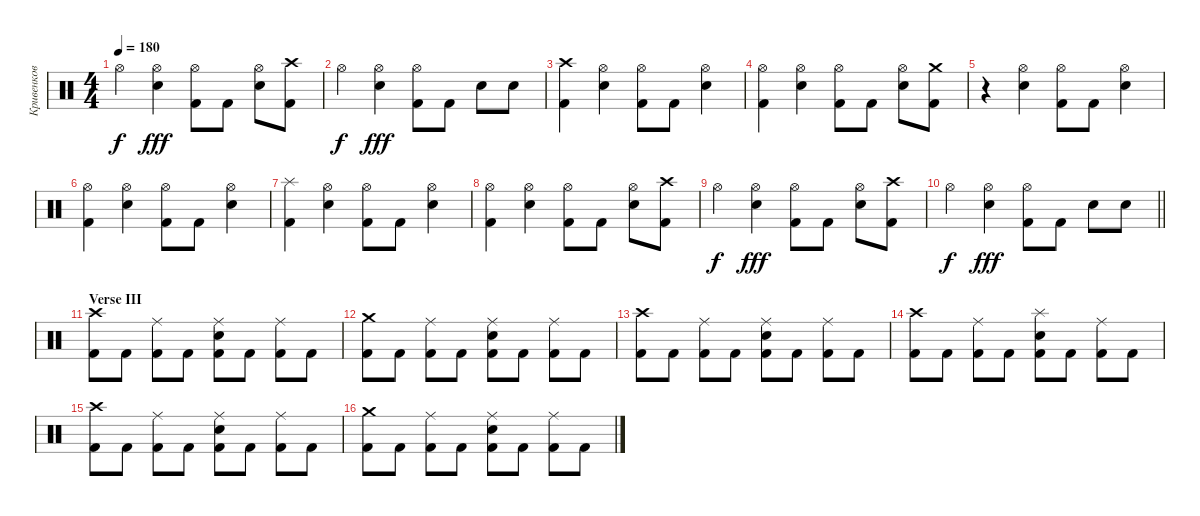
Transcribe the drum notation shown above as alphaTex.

\track ("Кривенков" "Кривенков") {instrument percussion}
\staff {score}
\articulation defaults
\ts (4 4)
\tempo 180
\clef neutral
\ks c "Hi-Hat (open)".4{dy f}
("Hi-Hat (open)" "Snare (hit) 2").4{dy fff} ("Kick (hit) 2" "Hi-Hat (open)").8 "Kick (hit) 2".8 ("Hi-Hat (open)" "Snare (hit) 2").8 ("Kick (hit) 2" "Crash high (hit)").8 |
"Hi-Hat (open)".4{dy f} ("Hi-Hat (open)" "Snare (hit) 2").4{dy fff} ("Hi-Hat (open)" "Kick (hit) 2").8 "Kick (hit) 2".8 "Snare (hit) 2".8 "Snare (hit) 2".8 |
("Kick (hit) 2" "Crash high (hit)").4 ("Hi-Hat (open)" "Snare (hit) 2").4 ("Kick (hit) 2" "Hi-Hat (open)").8 "Kick (hit) 2".8 ("Snare (hit) 2" "Hi-Hat (open)").4 |
("Hi-Hat (open)" "Kick (hit) 2").4 ("Snare (hit) 2" "Hi-Hat (open)").4 ("Kick (hit) 2" "Hi-Hat (open)").8 "Kick (hit) 2".8 ("Hi-Hat (open)" "Snare (hit) 2").8 ("Kick (hit) 2" "Crash medium (hit)").8 |
r.4 ("Snare (hit) 2" "Hi-Hat (open)").4 ("Kick (hit) 2" "Hi-Hat (open)").8 "Kick (hit) 2".8 ("Hi-Hat (open)" "Snare (hit) 2").4 |
("Kick (hit) 2" "Hi-Hat (open)").4 ("Hi-Hat (open)" "Snare (hit) 2").4 ("Kick (hit) 2" "Hi-Hat (open)").8 "Kick (hit) 2".8 ("Hi-Hat (open)" "Snare (hit) 2").4 |
("Kick (hit) 2" "Splash (hit)").4 ("Hi-Hat (open)" "Snare (hit) 2").4 ("Hi-Hat (open)" "Kick (hit) 2").8 "Kick (hit) 2".8 ("Snare (hit) 2" "Hi-Hat (open)").4 |
("Kick (hit) 2" "Hi-Hat (open)").4 ("Snare (hit) 2" "Hi-Hat (open)").4 ("Kick (hit) 2" "Hi-Hat (open)").8 "Kick (hit) 2".8 ("Hi-Hat (open)" "Snare (hit) 2").8 ("Crash high (hit)" "Kick (hit) 2").8 |
"Hi-Hat (open)".4{dy f} ("Snare (hit) 2" "Hi-Hat (open)").4{dy fff} ("Hi-Hat (open)" "Kick (hit) 2").8 "Kick (hit) 2".8 ("Snare (hit) 2" "Hi-Hat (open)").8 ("Crash high (hit)" "Kick (hit) 2").8 |
\barLineRight lightlight "Hi-Hat (open)".4{dy f}
("Snare (hit) 2" "Hi-Hat (open)").4{dy fff} ("Kick (hit) 2" "Hi-Hat (open)").8 "Kick (hit) 2".8 "Snare (hit) 2".8 "Snare (hit) 2".8 |
\section ("" "Verse III")
("Crash high (hit)" "Kick (hit) 2").8 "Kick (hit) 2".8 ("Ride (middle)" "Kick (hit) 2").8 "Kick (hit) 2".8 ("Snare (hit) 2" "Ride (middle)" "Kick (hit) 2").8 "Kick (hit) 2".8 ("Ride (middle)" "Kick (hit) 2").8 "Kick (hit) 2".8 |
("Crash medium (hit)" "Kick (hit) 2").8 "Kick (hit) 2".8 ("Ride (middle)" "Kick (hit) 2").8 "Kick (hit) 2".8 ("Snare (hit) 2" "Kick (hit) 2" "Ride (middle)").8 "Kick (hit) 2".8 ("Ride (middle)" "Kick (hit) 2").8 "Kick (hit) 2".8 |
("Kick (hit) 2" "Crash high (hit)").8 "Kick (hit) 2".8 ("Kick (hit) 2" "Ride (middle)").8 "Kick (hit) 2".8 ("Kick (hit) 2" "Snare (hit) 2" "Ride (middle)").8 "Kick (hit) 2".8 ("Ride (middle)" "Kick (hit) 2").8 "Kick (hit) 2".8 |
("Kick (hit) 2" "Crash high (hit)").8 "Kick (hit) 2".8 ("Kick (hit) 2" "Ride (middle)").8 "Kick (hit) 2".8 ("Kick (hit) 2" "Splash (hit)" "Snare (hit) 2").8 "Kick (hit) 2".8 ("Kick (hit) 2" "Ride (middle)").8 "Kick (hit) 2".8 |
("Crash high (hit)" "Kick (hit) 2").8 "Kick (hit) 2".8 ("Kick (hit) 2" "Ride (middle)").8 "Kick (hit) 2".8 ("Snare (hit) 2" "Ride (middle)" "Kick (hit) 2").8 "Kick (hit) 2".8 ("Kick (hit) 2" "Ride (middle)").8 "Kick (hit) 2".8 |
("Crash medium (hit)" "Kick (hit) 2").8 "Kick (hit) 2".8 ("Kick (hit) 2" "Ride (middle)").8 "Kick (hit) 2".8 ("Kick (hit) 2" "Snare (hit) 2" "Ride (middle)").8 "Kick (hit) 2".8 ("Ride (middle)" "Kick (hit) 2").8 "Kick (hit) 2".8
